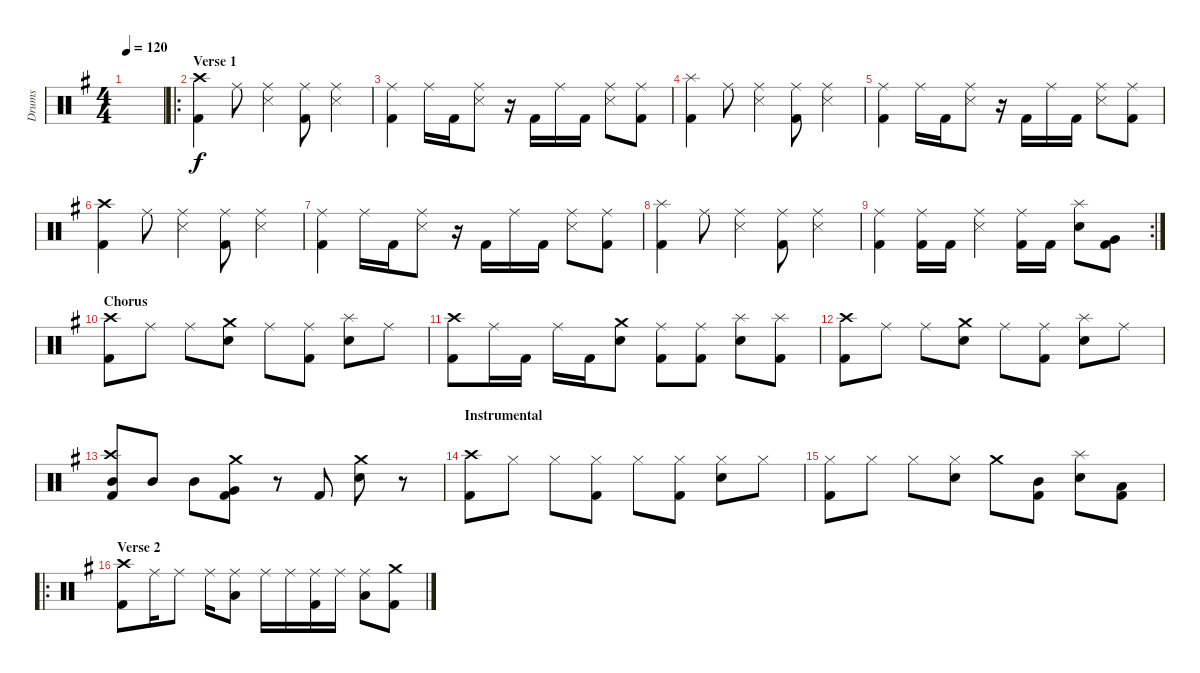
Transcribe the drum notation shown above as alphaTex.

\track ("Drums" "Drums") {instrument percussion}
\staff {score}
\articulation defaults
\ts (4 4)
\tempo 120
\clef neutral
\ks g
|
\ro
\section ("" "Verse 1")
("Kick (hit) 2" "Crash high (hit)").4 "Ride (middle)".8 ("Ride (middle)" "Snare (side stick) 3").4 ("Kick (hit) 2" "Ride (middle)").8 ("Snare (side stick) 3" "Ride (middle)").4 |
("Kick (hit) 2" "Ride (middle)").4 "Ride (middle)".16 "Kick (hit) 2".16 ("Snare (side stick) 3" "Ride (middle)").8 r.16 "Kick (hit) 2".16 "Ride (middle)".16 "Kick (hit) 2".16 ("Ride (middle)" "Snare (side stick) 3").8 ("Kick (hit) 2" "Ride (middle)").8 |
("Kick (hit) 2" "Splash (hit)").4 "Ride (middle)".8 ("Ride (middle)" "Snare (side stick) 3").4 ("Kick (hit) 2" "Ride (middle)").8 ("Snare (side stick) 3" "Ride (middle)").4 |
("Kick (hit) 2" "Ride (middle)").4 "Ride (middle)".16 "Kick (hit) 2".16 ("Snare (side stick) 3" "Ride (middle)").8 r.16 "Kick (hit) 2".16 "Ride (middle)".16 "Kick (hit) 2".16 ("Ride (middle)" "Snare (side stick) 3").8 ("Kick (hit) 2" "Ride (middle)").8 |
("Kick (hit) 2" "Crash high (hit)").4 "Ride (middle)".8 ("Ride (middle)" "Snare (side stick) 3").4 ("Kick (hit) 2" "Ride (middle)").8 ("Snare (side stick) 3" "Ride (middle)").4 |
("Kick (hit) 2" "Ride (middle)").4 "Ride (middle)".16 "Kick (hit) 2".16 ("Snare (side stick) 3" "Ride (middle)").8 r.16 "Kick (hit) 2".16 "Ride (middle)".16 "Kick (hit) 2".16 ("Ride (middle)" "Snare (side stick) 3").8 ("Kick (hit) 2" "Ride (middle)").8 |
("Kick (hit) 2" "Splash (hit)").4 "Ride (middle)".8 ("Ride (middle)" "Snare (side stick) 3").4 ("Kick (hit) 2" "Ride (middle)").8 ("Snare (side stick) 3" "Ride (middle)").4 |
\rc 2
("Kick (hit) 2" "Ride (middle)").4 ("Ride (middle)" "Kick (hit) 2").16 "Kick (hit) 2".16 ("Snare (side stick) 3" "Ride (middle)").4 ("Ride (middle)" "Kick (hit) 2").16 "Kick (hit) 2".16 ("Snare (hit) 2" "Splash (hit)").8 ("Kick (hit) 2" "Very Low Tom (hit)").8 |
\section ("" "Chorus")
("Crash high (hit)" "Kick (hit) 2").8 "Ride (middle)".8 "Ride (middle)".8 ("Crash medium (hit)" "Snare (hit) 2").8 "Ride (middle)".8 ("Ride (middle)" "Kick (hit) 2").8 ("Splash (hit)" "Snare (hit) 2").8 "Ride (middle)".8 |
("Crash high (hit)" "Kick (hit) 2").8 "Ride (middle)".16 "Kick (hit) 2".16 "Ride (middle)".16 "Kick (hit) 2".16 ("Crash medium (hit)" "Snare (hit) 2").8 ("Ride (middle)" "Kick (hit) 2").8 ("Ride (middle)" "Kick (hit) 2").8 ("Splash (hit)" "Snare (hit) 2").8 ("Splash (hit)" "Kick (hit) 2").8 |
("Crash high (hit)" "Kick (hit) 2").8 "Ride (middle)".8 "Ride (middle)".8 ("Crash medium (hit)" "Snare (hit) 2").8 "Ride (middle)".8 ("Ride (middle)" "Kick (hit) 2").8 ("Splash (hit)" "Snare (hit) 2").8 "Ride (middle)".8 |
("Crash high (hit)" "Kick (hit) 2" "Mid Tom (hit)").8 "Mid Tom (hit)".8 "Mid Tom (hit)".8 ("Crash medium (hit)" "Very Low Tom (hit)" "Kick (hit) 2").8 r.8 "Kick (hit) 2".8 ("Crash medium (hit)" "Snare (hit) 2").8 r.8 |
\section ("" "Instrumental")
("Crash high (hit)" "Kick (hit) 2").8 "Hi-Hat (closed)".8 "Hi-Hat (closed)".8 ("Hi-Hat (closed)" "Kick (hit) 2").8 "Hi-Hat (closed)".8 ("Hi-Hat (closed)" "Kick (hit) 2").8 ("Hi-Hat (closed)" "Snare (hit) 2").8 "Hi-Hat (closed)".8 |
("Hi-Hat (closed)" "Kick (hit) 2").8 "Hi-Hat (closed)".8 "Hi-Hat (closed)".8 ("Hi-Hat (closed)" "Snare (hit) 2").8 "Crash medium (hit)".8 ("Mid Tom (hit)" "Kick (hit) 2").8 ("Snare (hit) 2" "Splash (hit)").8 ("Low Tom (hit)" "Kick (hit) 2").8 |
\ro
\section ("" "Verse 2")
("Kick (hit) 2" "Crash high (hit)").8 "Ride (middle)".16 "Ride (middle)".8 "Ride (middle)".16 ("Low Floor Tom (hit)" "Ride (middle)").8 "Ride (middle)".16 "Ride (middle)".16 ("Kick (hit) 2" "Ride (middle)").16 "Ride (middle)".16 ("Low Floor Tom (hit)" "Ride (middle)").8 ("Kick (hit) 2" "Crash medium (hit)").8
